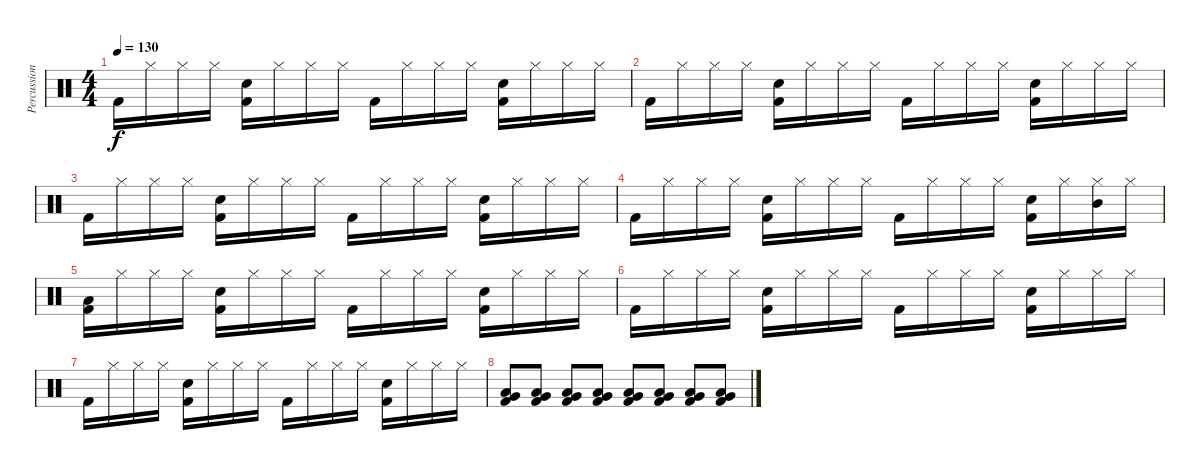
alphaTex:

\track ("Percussion" "Percussion") {instrument percussion}
\staff {score}
\articulation defaults
\ts (4 4)
\tempo 130
\clef neutral
\ks c "Kick (hit) 2".16{dy f} "Hi-Hat (closed)".16 "Hi-Hat (closed)".16 "Hi-Hat (closed)".16
("Electric Snare (hit)" "Kick (hit) 2").16 "Hi-Hat (closed)".16 "Hi-Hat (closed)".16 "Hi-Hat (closed)".16 "Kick (hit) 2".16 "Hi-Hat (closed)".16 "Hi-Hat (closed)".16 "Hi-Hat (closed)".16 ("Electric Snare (hit)" "Kick (hit) 2").16 "Hi-Hat (closed)".16 "Hi-Hat (closed)".16 "Hi-Hat (closed)".16 |
"Kick (hit) 2".16 "Hi-Hat (closed)".16 "Hi-Hat (closed)".16 "Hi-Hat (closed)".16 ("Electric Snare (hit)" "Kick (hit) 2").16 "Hi-Hat (closed)".16 "Hi-Hat (closed)".16 "Hi-Hat (closed)".16 "Kick (hit) 2".16 "Hi-Hat (closed)".16 "Hi-Hat (closed)".16 "Hi-Hat (closed)".16 ("Electric Snare (hit)" "Kick (hit) 2").16 "Hi-Hat (closed)".16 "Hi-Hat (closed)".16 "Hi-Hat (closed)".16 |
"Kick (hit) 2".16 "Hi-Hat (closed)".16 "Hi-Hat (closed)".16 "Hi-Hat (closed)".16 ("Electric Snare (hit)" "Kick (hit) 2").16 "Hi-Hat (closed)".16 "Hi-Hat (closed)".16 "Hi-Hat (closed)".16 "Kick (hit) 2".16 "Hi-Hat (closed)".16 "Hi-Hat (closed)".16 "Hi-Hat (closed)".16 ("Electric Snare (hit)" "Kick (hit) 2").16 "Hi-Hat (closed)".16 "Hi-Hat (closed)".16 "Hi-Hat (closed)".16 |
"Kick (hit) 2".16 "Hi-Hat (closed)".16 "Hi-Hat (closed)".16 "Hi-Hat (closed)".16 ("Electric Snare (hit)" "Kick (hit) 2").16 "Hi-Hat (closed)".16 "Hi-Hat (closed)".16 "Hi-Hat (closed)".16 "Kick (hit) 2".16 "Hi-Hat (closed)".16 "Hi-Hat (closed)".16 "Hi-Hat (closed)".16 ("Electric Snare (hit)" "Kick (hit) 2").16 "Hi-Hat (closed)".16 ("Hi-Hat (closed)" "Mid Tom (hit)").16 "Hi-Hat (closed)".16 |
("Low Tom (hit)" "Kick (hit) 2").16 "Hi-Hat (closed)".16 "Hi-Hat (closed)".16 "Hi-Hat (closed)".16 ("Electric Snare (hit)" "Kick (hit) 2").16 "Hi-Hat (closed)".16 "Hi-Hat (closed)".16 "Hi-Hat (closed)".16 "Kick (hit) 2".16 "Hi-Hat (closed)".16 "Hi-Hat (closed)".16 "Hi-Hat (closed)".16 ("Electric Snare (hit)" "Kick (hit) 2").16 "Hi-Hat (closed)".16 "Hi-Hat (closed)".16 "Hi-Hat (closed)".16 |
"Kick (hit) 2".16 "Hi-Hat (closed)".16 "Hi-Hat (closed)".16 "Hi-Hat (closed)".16 ("Electric Snare (hit)" "Kick (hit) 2").16 "Hi-Hat (closed)".16 "Hi-Hat (closed)".16 "Hi-Hat (closed)".16 "Kick (hit) 2".16 "Hi-Hat (closed)".16 "Hi-Hat (closed)".16 "Hi-Hat (closed)".16 ("Electric Snare (hit)" "Kick (hit) 2").16 "Hi-Hat (closed)".16 "Hi-Hat (closed)".16 "Hi-Hat (closed)".16 |
"Kick (hit) 2".16 "Hi-Hat (closed)".16 "Hi-Hat (closed)".16 "Hi-Hat (closed)".16 ("Electric Snare (hit)" "Kick (hit) 2").16 "Hi-Hat (closed)".16 "Hi-Hat (closed)".16 "Hi-Hat (closed)".16 "Kick (hit) 2".16 "Hi-Hat (closed)".16 "Hi-Hat (closed)".16 "Hi-Hat (closed)".16 ("Electric Snare (hit)" "Kick (hit) 2").16 "Hi-Hat (closed)".16 "Hi-Hat (closed)".16 "Hi-Hat (closed)".16 |
("Low Tom (hit)" "Very Low Tom (hit)" "Kick (hit) 2").8 ("Low Tom (hit)" "Very Low Tom (hit)" "Kick (hit) 2").8 ("Low Tom (hit)" "Very Low Tom (hit)" "Kick (hit) 2").8 ("Low Tom (hit)" "Very Low Tom (hit)" "Kick (hit) 2").8 ("Low Tom (hit)" "Very Low Tom (hit)" "Kick (hit) 2").8 ("Low Tom (hit)" "Very Low Tom (hit)" "Kick (hit) 2").8 ("Low Tom (hit)" "Very Low Tom (hit)" "Kick (hit) 2").8 ("Low Tom (hit)" "Very Low Tom (hit)" "Kick (hit) 2").8
